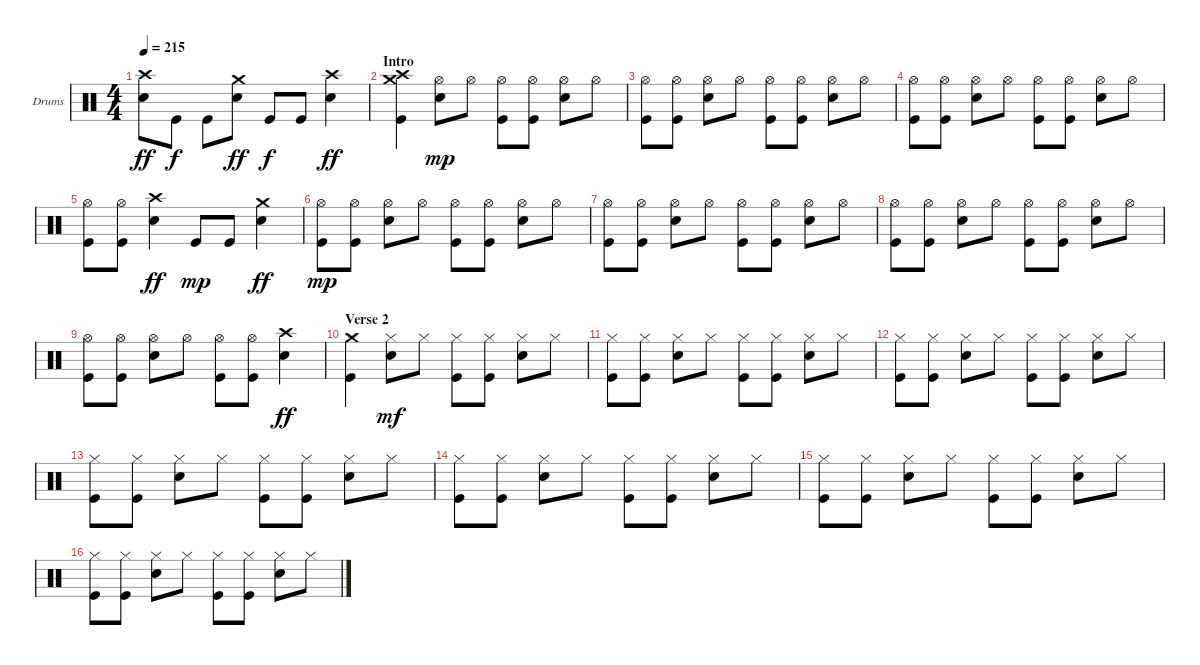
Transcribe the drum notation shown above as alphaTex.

\bracketExtendMode groupsimilarinstruments
\firstSystemTrackNameOrientation horizontal
\otherSystemsTrackNameOrientation horizontal
\track ("Drumkit" "Drums") {instrument percussion}
\staff {score}
\articulation defaults
\ts (4 4)
\tempo 215
\clef neutral
\ks c
("Crash high (hit)" "Snare (hit) 2").8{dy ff} "Kick (hit)".8{dy f} "Kick (hit)".8 ("Crash medium (hit)" "Snare (hit) 2").8{dy ff} "Kick (hit)".8{dy f} "Kick (hit)".8 ("Crash high (hit)" "Snare (hit) 2").4{dy ff} |
\section ("" "Intro")
("Crash medium (hit)" "Crash high (hit)" "Kick (hit)").4 ("Hi-Hat (open)" "Snare (hit) 2").8{dy mp} "Hi-Hat (open)".8 ("Hi-Hat (open)" "Kick (hit)").8 ("Hi-Hat (open)" "Kick (hit)").8 ("Hi-Hat (open)" "Snare (hit) 2").8 "Hi-Hat (open)".8 |
("Hi-Hat (open)" "Kick (hit)").8 ("Hi-Hat (open)" "Kick (hit)").8 ("Hi-Hat (open)" "Snare (hit) 2").8 "Hi-Hat (open)".8 ("Hi-Hat (open)" "Kick (hit)").8 ("Hi-Hat (open)" "Kick (hit)").8 ("Hi-Hat (open)" "Snare (hit) 2").8 "Hi-Hat (open)".8 |
("Hi-Hat (open)" "Kick (hit)").8 ("Hi-Hat (open)" "Kick (hit)").8 ("Hi-Hat (open)" "Snare (hit) 2").8 "Hi-Hat (open)".8 ("Hi-Hat (open)" "Kick (hit)").8 ("Hi-Hat (open)" "Kick (hit)").8 ("Hi-Hat (open)" "Snare (hit) 2").8 "Hi-Hat (open)".8 |
("Hi-Hat (open)" "Kick (hit)").8 ("Hi-Hat (open)" "Kick (hit)").8 ("Crash high (hit)" "Snare (hit) 2").4{dy ff} "Kick (hit)".8{dy mp} "Kick (hit)".8 ("Crash medium (hit)" "Snare (hit) 2").4{dy ff} |
("Hi-Hat (open)" "Kick (hit)").8{dy mp} ("Hi-Hat (open)" "Kick (hit)").8 ("Hi-Hat (open)" "Snare (hit) 2").8 "Hi-Hat (open)".8 ("Hi-Hat (open)" "Kick (hit)").8 ("Hi-Hat (open)" "Kick (hit)").8 ("Hi-Hat (open)" "Snare (hit) 2").8 "Hi-Hat (open)".8 |
("Hi-Hat (open)" "Kick (hit)").8 ("Hi-Hat (open)" "Kick (hit)").8 ("Hi-Hat (open)" "Snare (hit) 2").8 "Hi-Hat (open)".8 ("Hi-Hat (open)" "Kick (hit)").8 ("Hi-Hat (open)" "Kick (hit)").8 ("Hi-Hat (open)" "Snare (hit) 2").8 "Hi-Hat (open)".8 |
("Hi-Hat (open)" "Kick (hit)").8 ("Hi-Hat (open)" "Kick (hit)").8 ("Hi-Hat (open)" "Snare (hit) 2").8 "Hi-Hat (open)".8 ("Hi-Hat (open)" "Kick (hit)").8 ("Hi-Hat (open)" "Kick (hit)").8 ("Hi-Hat (open)" "Snare (hit) 2").8 "Hi-Hat (open)".8 |
("Hi-Hat (open)" "Kick (hit)").8 ("Hi-Hat (open)" "Kick (hit)").8 ("Hi-Hat (open)" "Snare (hit) 2").8 "Hi-Hat (open)".8 ("Hi-Hat (open)" "Kick (hit)").8 ("Hi-Hat (open)" "Kick (hit)").8 ("Crash high (hit)" "Snare (hit) 2").4{dy ff} |
\section ("" "Verse 2")
("Crash medium (hit)" "Kick (hit)").4 ("Hi-Hat (closed)" "Snare (hit) 2").8{dy mf} "Hi-Hat (closed)".8 ("Hi-Hat (closed)" "Kick (hit)").8 ("Hi-Hat (closed)" "Kick (hit)").8 ("Hi-Hat (closed)" "Snare (hit) 2").8 "Hi-Hat (closed)".8 |
("Hi-Hat (closed)" "Kick (hit)").8 ("Hi-Hat (closed)" "Kick (hit)").8 ("Hi-Hat (closed)" "Snare (hit) 2").8 "Hi-Hat (closed)".8 ("Hi-Hat (closed)" "Kick (hit)").8 ("Hi-Hat (closed)" "Kick (hit)").8 ("Hi-Hat (closed)" "Snare (hit) 2").8 "Hi-Hat (closed)".8 |
("Hi-Hat (closed)" "Kick (hit)").8 ("Hi-Hat (closed)" "Kick (hit)").8 ("Hi-Hat (closed)" "Snare (hit) 2").8 "Hi-Hat (closed)".8 ("Hi-Hat (closed)" "Kick (hit)").8 ("Hi-Hat (closed)" "Kick (hit)").8 ("Hi-Hat (closed)" "Snare (hit) 2").8 "Hi-Hat (closed)".8 |
("Hi-Hat (closed)" "Kick (hit)").8 ("Hi-Hat (closed)" "Kick (hit)").8 ("Hi-Hat (closed)" "Snare (hit) 2").8 "Hi-Hat (closed)".8 ("Hi-Hat (closed)" "Kick (hit)").8 ("Hi-Hat (closed)" "Kick (hit)").8 ("Hi-Hat (closed)" "Snare (hit) 2").8 "Hi-Hat (closed)".8 |
("Hi-Hat (closed)" "Kick (hit)").8 ("Hi-Hat (closed)" "Kick (hit)").8 ("Hi-Hat (closed)" "Snare (hit) 2").8 "Hi-Hat (closed)".8 ("Hi-Hat (closed)" "Kick (hit)").8 ("Hi-Hat (closed)" "Kick (hit)").8 ("Hi-Hat (closed)" "Snare (hit) 2").8 "Hi-Hat (closed)".8 |
("Hi-Hat (closed)" "Kick (hit)").8 ("Hi-Hat (closed)" "Kick (hit)").8 ("Hi-Hat (closed)" "Snare (hit) 2").8 "Hi-Hat (closed)".8 ("Hi-Hat (closed)" "Kick (hit)").8 ("Hi-Hat (closed)" "Kick (hit)").8 ("Hi-Hat (closed)" "Snare (hit) 2").8 "Hi-Hat (closed)".8 |
("Hi-Hat (closed)" "Kick (hit)").8 ("Hi-Hat (closed)" "Kick (hit)").8 ("Hi-Hat (closed)" "Snare (hit) 2").8 "Hi-Hat (closed)".8 ("Hi-Hat (closed)" "Kick (hit)").8 ("Hi-Hat (closed)" "Kick (hit)").8 ("Hi-Hat (closed)" "Snare (hit) 2").8 "Hi-Hat (closed)".8
